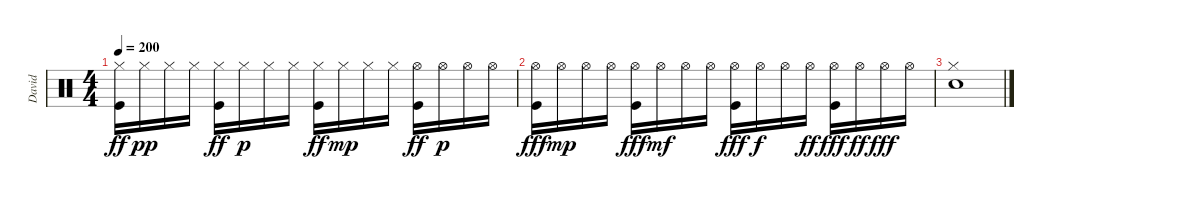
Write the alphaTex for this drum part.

\track ("David" "David") {instrument percussion}
\staff {score}
\articulation defaults
\ts (4 4)
\tempo 200
\clef neutral
\ks c
("Hi-Hat (closed)" "Kick (hit)").16{dy ff} "Hi-Hat (closed)".16{dy pp} "Hi-Hat (closed)".16 "Hi-Hat (closed)".16 ("Hi-Hat (closed)" "Kick (hit)").16{dy ff} "Hi-Hat (closed)".16{dy p} "Hi-Hat (closed)".16 "Hi-Hat (closed)".16 ("Hi-Hat (closed)" "Kick (hit)").16{dy ff} "Hi-Hat (closed)".16{dy mp} "Hi-Hat (closed)".16 "Hi-Hat (closed)".16 ("Hi-Hat (open)" "Kick (hit)").16{dy ff} "Hi-Hat (open)".16{dy p} "Hi-Hat (open)".16 "Hi-Hat (open)".16 |
("Hi-Hat (open)" "Kick (hit)").16{dy fff} "Hi-Hat (open)".16{dy mp} "Hi-Hat (open)".16 "Hi-Hat (open)".16 ("Hi-Hat (open)" "Kick (hit)").16{dy fff} "Hi-Hat (open)".16{dy mf} "Hi-Hat (open)".16 "Hi-Hat (open)".16 ("Hi-Hat (open)" "Kick (hit)").16{dy fff} "Hi-Hat (open)".16{dy f} "Hi-Hat (open)".16 "Hi-Hat (open)".16{dy ff} ("Hi-Hat (open)" "Kick (hit)").16{dy fff} "Hi-Hat (open)".16{dy ff} "Hi-Hat (open)".16{dy fff} "Hi-Hat (open)".16 |
("Hi-Hat (closed)" "Electric Snare (hit)").1
